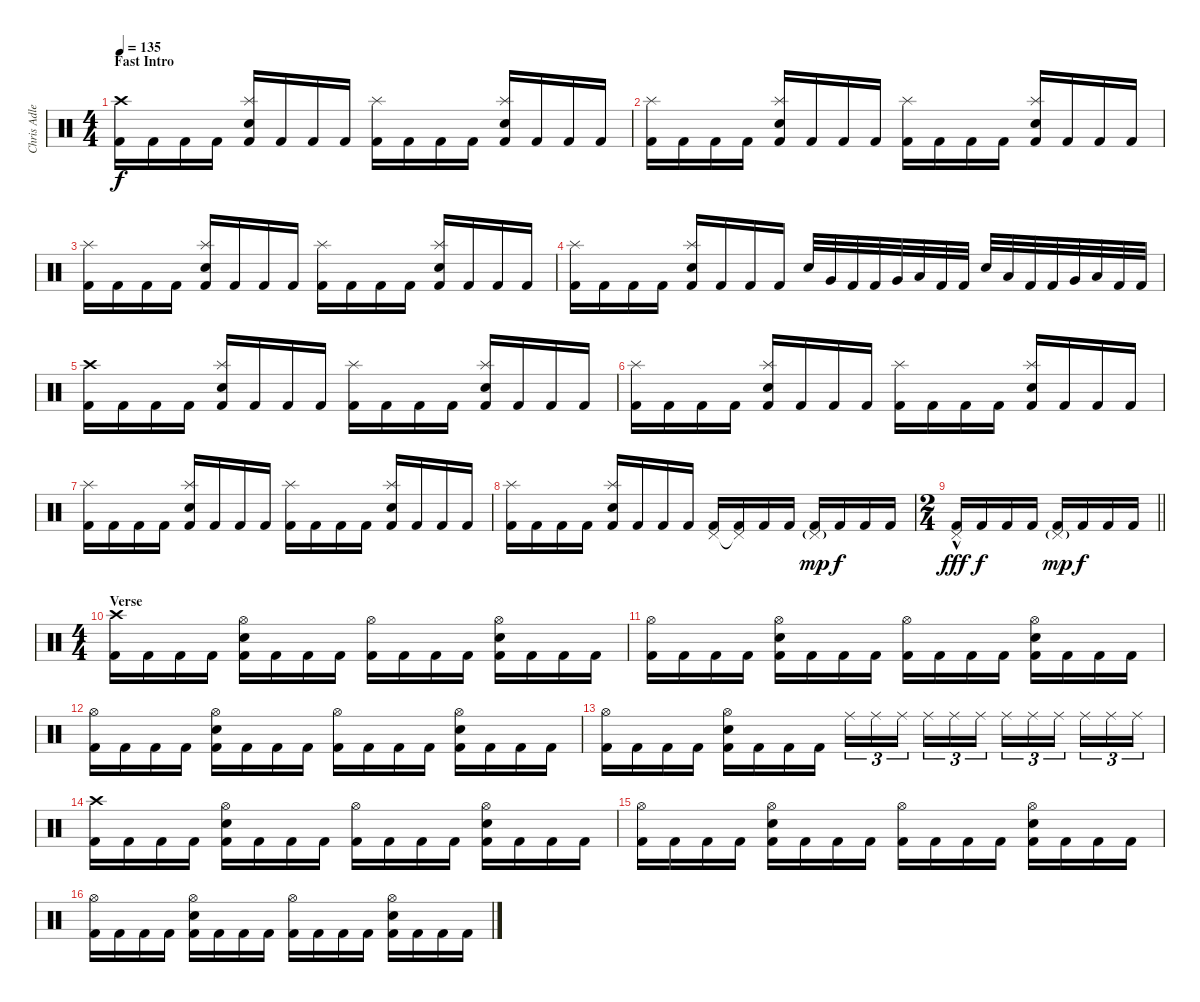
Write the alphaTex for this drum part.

\track ("Chris Adler" "Chris Adle") {instrument percussion}
\staff {score}
\articulation defaults
\ts (4 4)
\section ("" "Fast Intro")
\tempo 135
\clef neutral
\ks c
("Crash high (hit)" "Kick (hit) 2").16{dy f} "Kick (hit) 2".16 "Kick (hit) 2".16 "Kick (hit) 2".16 ("Splash (hit)" "Electric Snare (hit)" "Kick (hit) 2").16 "Kick (hit) 2".16 "Kick (hit) 2".16 "Kick (hit) 2".16 ("Splash (hit)" "Kick (hit) 2").16 "Kick (hit) 2".16 "Kick (hit) 2".16 "Kick (hit) 2".16 ("Splash (hit)" "Electric Snare (hit)" "Kick (hit) 2").16 "Kick (hit) 2".16 "Kick (hit) 2".16 "Kick (hit) 2".16 |
("Splash (hit)" "Kick (hit) 2").16 "Kick (hit) 2".16 "Kick (hit) 2".16 "Kick (hit) 2".16 ("Splash (hit)" "Electric Snare (hit)" "Kick (hit) 2").16 "Kick (hit) 2".16 "Kick (hit) 2".16 "Kick (hit) 2".16 ("Splash (hit)" "Kick (hit) 2").16 "Kick (hit) 2".16 "Kick (hit) 2".16 "Kick (hit) 2".16 ("Splash (hit)" "Electric Snare (hit)" "Kick (hit) 2").16 "Kick (hit) 2".16 "Kick (hit) 2".16 "Kick (hit) 2".16 |
("Splash (hit)" "Kick (hit) 2").16 "Kick (hit) 2".16 "Kick (hit) 2".16 "Kick (hit) 2".16 ("Splash (hit)" "Electric Snare (hit)" "Kick (hit) 2").16 "Kick (hit) 2".16 "Kick (hit) 2".16 "Kick (hit) 2".16 ("Splash (hit)" "Kick (hit) 2").16 "Kick (hit) 2".16 "Kick (hit) 2".16 "Kick (hit) 2".16 ("Splash (hit)" "Electric Snare (hit)" "Kick (hit) 2").16 "Kick (hit) 2".16 "Kick (hit) 2".16 "Kick (hit) 2".16 |
("Splash (hit)" "Kick (hit) 2").16 "Kick (hit) 2".16 "Kick (hit) 2".16 "Kick (hit) 2".16 ("Splash (hit)" "Electric Snare (hit)" "Kick (hit) 2").16 "Kick (hit) 2".16 "Kick (hit) 2".16 "Kick (hit) 2".16 "Electric Snare (hit)".32 "Very Low Tom (hit)".32 "Kick (hit) 2".32 "Kick (hit) 2".32 "Very Low Tom (hit)".32 "Low Floor Tom (hit)".32 "Kick (hit) 2".32 "Kick (hit) 2".32 "Electric Snare (hit)".32 "Low Floor Tom (hit)".32 "Kick (hit) 2".32 "Kick (hit) 2".32 "Very Low Tom (hit)".32 "Low Floor Tom (hit)".32 "Kick (hit) 2".32 "Kick (hit) 2".32 |
("Crash high (hit)" "Kick (hit) 2").16 "Kick (hit) 2".16 "Kick (hit) 2".16 "Kick (hit) 2".16 ("Splash (hit)" "Electric Snare (hit)" "Kick (hit) 2").16 "Kick (hit) 2".16 "Kick (hit) 2".16 "Kick (hit) 2".16 ("Splash (hit)" "Kick (hit) 2").16 "Kick (hit) 2".16 "Kick (hit) 2".16 "Kick (hit) 2".16 ("Splash (hit)" "Electric Snare (hit)" "Kick (hit) 2").16 "Kick (hit) 2".16 "Kick (hit) 2".16 "Kick (hit) 2".16 |
("Splash (hit)" "Kick (hit) 2").16 "Kick (hit) 2".16 "Kick (hit) 2".16 "Kick (hit) 2".16 ("Splash (hit)" "Electric Snare (hit)" "Kick (hit) 2").16 "Kick (hit) 2".16 "Kick (hit) 2".16 "Kick (hit) 2".16 ("Splash (hit)" "Kick (hit) 2").16 "Kick (hit) 2".16 "Kick (hit) 2".16 "Kick (hit) 2".16 ("Splash (hit)" "Electric Snare (hit)" "Kick (hit) 2").16 "Kick (hit) 2".16 "Kick (hit) 2".16 "Kick (hit) 2".16 |
("Splash (hit)" "Kick (hit) 2").16 "Kick (hit) 2".16 "Kick (hit) 2".16 "Kick (hit) 2".16 ("Splash (hit)" "Electric Snare (hit)" "Kick (hit) 2").16 "Kick (hit) 2".16 "Kick (hit) 2".16 "Kick (hit) 2".16 ("Splash (hit)" "Kick (hit) 2").16 "Kick (hit) 2".16 "Kick (hit) 2".16 "Kick (hit) 2".16 ("Splash (hit)" "Electric Snare (hit)" "Kick (hit) 2").16 "Kick (hit) 2".16 "Kick (hit) 2".16 "Kick (hit) 2".16 |
("Splash (hit)" "Kick (hit) 2").16 "Kick (hit) 2".16 "Kick (hit) 2".16 "Kick (hit) 2".16 ("Splash (hit)" "Electric Snare (hit)" "Kick (hit) 2").16 "Kick (hit) 2".16 "Kick (hit) 2".16 "Kick (hit) 2".16 ("Pedal Hi-Hat (hit)" "Kick (hit) 2").16 ("Pedal Hi-Hat (hit)"{t} "Kick (hit) 2").16 "Kick (hit) 2".16 "Kick (hit) 2".16 ("Pedal Hi-Hat (hit)"{g} "Kick (hit) 2").16{dy mp} "Kick (hit) 2".16{dy f} "Kick (hit) 2".16 "Kick (hit) 2".16 |
\ts (2 4)
\barLineRight lightlight
("Pedal Hi-Hat (hit)"{hac} "Kick (hit) 2").16{dy fff} "Kick (hit) 2".16{dy f} "Kick (hit) 2".16 "Kick (hit) 2".16 ("Pedal Hi-Hat (hit)"{g} "Kick (hit) 2").16{dy mp} "Kick (hit) 2".16{dy f} "Kick (hit) 2".16 "Kick (hit) 2".16 |
\ts (4 4)
\section ("" "Verse")
("Crash high (hit)" "Kick (hit) 2").16 "Kick (hit) 2".16 "Kick (hit) 2".16 "Kick (hit) 2".16 ("Hi-Hat (open)" "Electric Snare (hit)" "Kick (hit) 2").16 "Kick (hit) 2".16 "Kick (hit) 2".16 "Kick (hit) 2".16 ("Hi-Hat (open)" "Kick (hit) 2").16 "Kick (hit) 2".16 "Kick (hit) 2".16 "Kick (hit) 2".16 ("Hi-Hat (open)" "Electric Snare (hit)" "Kick (hit) 2").16 "Kick (hit) 2".16 "Kick (hit) 2".16 "Kick (hit) 2".16 |
("Hi-Hat (open)" "Kick (hit) 2").16 "Kick (hit) 2".16 "Kick (hit) 2".16 "Kick (hit) 2".16 ("Hi-Hat (open)" "Electric Snare (hit)" "Kick (hit) 2").16 "Kick (hit) 2".16 "Kick (hit) 2".16 "Kick (hit) 2".16 ("Hi-Hat (open)" "Kick (hit) 2").16 "Kick (hit) 2".16 "Kick (hit) 2".16 "Kick (hit) 2".16 ("Hi-Hat (open)" "Electric Snare (hit)" "Kick (hit) 2").16 "Kick (hit) 2".16 "Kick (hit) 2".16 "Kick (hit) 2".16 |
("Hi-Hat (open)" "Kick (hit) 2").16 "Kick (hit) 2".16 "Kick (hit) 2".16 "Kick (hit) 2".16 ("Hi-Hat (open)" "Electric Snare (hit)" "Kick (hit) 2").16 "Kick (hit) 2".16 "Kick (hit) 2".16 "Kick (hit) 2".16 ("Hi-Hat (open)" "Kick (hit) 2").16 "Kick (hit) 2".16 "Kick (hit) 2".16 "Kick (hit) 2".16 ("Hi-Hat (open)" "Electric Snare (hit)" "Kick (hit) 2").16 "Kick (hit) 2".16 "Kick (hit) 2".16 "Kick (hit) 2".16 |
("Hi-Hat (open)" "Kick (hit) 2").16 "Kick (hit) 2".16 "Kick (hit) 2".16 "Kick (hit) 2".16 ("Hi-Hat (open)" "Electric Snare (hit)" "Kick (hit) 2").16 "Kick (hit) 2".16 "Kick (hit) 2".16 "Kick (hit) 2".16 "Ride (middle)".16{tu (3 2)} "Ride (middle)".16{tu (3 2)} "Ride (middle)".16{tu (3 2) beam splitsecondary} "Ride (middle)".16{tu (3 2)} "Ride (middle)".16{tu (3 2)} "Ride (middle)".16{tu (3 2)} "Ride (middle)".16{tu (3 2)} "Ride (middle)".16{tu (3 2)} "Ride (middle)".16{tu (3 2) beam splitsecondary} "Ride (middle)".16{tu (3 2)} "Ride (middle)".16{tu (3 2)} "Ride (middle)".16{tu (3 2)} |
("Crash high (hit)" "Kick (hit) 2").16 "Kick (hit) 2".16 "Kick (hit) 2".16 "Kick (hit) 2".16 ("Hi-Hat (open)" "Electric Snare (hit)" "Kick (hit) 2").16 "Kick (hit) 2".16 "Kick (hit) 2".16 "Kick (hit) 2".16 ("Hi-Hat (open)" "Kick (hit) 2").16 "Kick (hit) 2".16 "Kick (hit) 2".16 "Kick (hit) 2".16 ("Hi-Hat (open)" "Electric Snare (hit)" "Kick (hit) 2").16 "Kick (hit) 2".16 "Kick (hit) 2".16 "Kick (hit) 2".16 |
("Hi-Hat (open)" "Kick (hit) 2").16 "Kick (hit) 2".16 "Kick (hit) 2".16 "Kick (hit) 2".16 ("Hi-Hat (open)" "Electric Snare (hit)" "Kick (hit) 2").16 "Kick (hit) 2".16 "Kick (hit) 2".16 "Kick (hit) 2".16 ("Hi-Hat (open)" "Kick (hit) 2").16 "Kick (hit) 2".16 "Kick (hit) 2".16 "Kick (hit) 2".16 ("Hi-Hat (open)" "Electric Snare (hit)" "Kick (hit) 2").16 "Kick (hit) 2".16 "Kick (hit) 2".16 "Kick (hit) 2".16 |
("Hi-Hat (open)" "Kick (hit) 2").16 "Kick (hit) 2".16 "Kick (hit) 2".16 "Kick (hit) 2".16 ("Hi-Hat (open)" "Electric Snare (hit)" "Kick (hit) 2").16 "Kick (hit) 2".16 "Kick (hit) 2".16 "Kick (hit) 2".16 ("Hi-Hat (open)" "Kick (hit) 2").16 "Kick (hit) 2".16 "Kick (hit) 2".16 "Kick (hit) 2".16 ("Hi-Hat (open)" "Electric Snare (hit)" "Kick (hit) 2").16 "Kick (hit) 2".16 "Kick (hit) 2".16 "Kick (hit) 2".16
